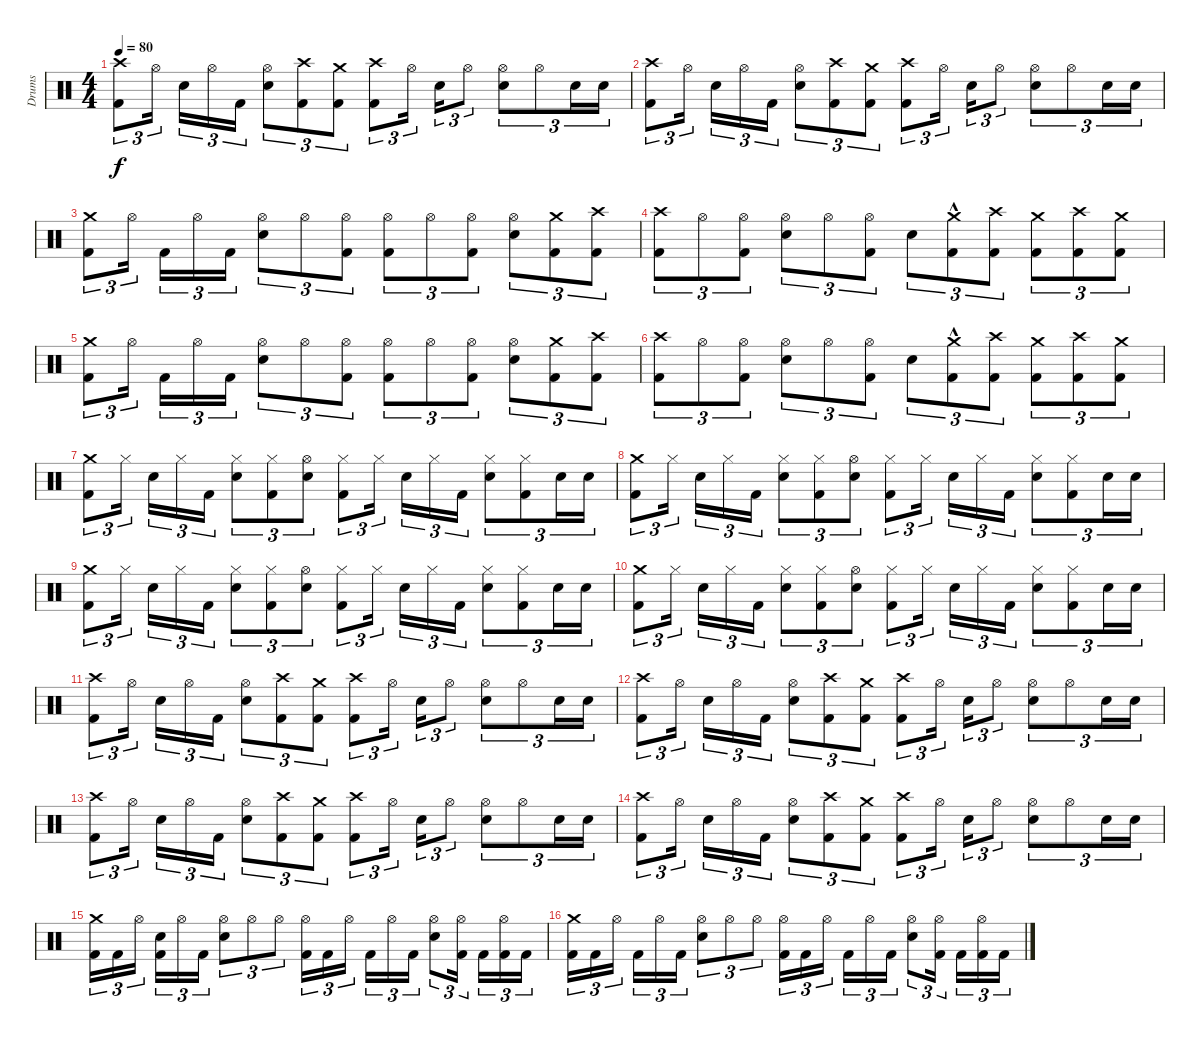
\track ("Drums" "Drums") {instrument percussion}
\staff {score}
\articulation defaults
\ts (4 4)
\tempo 80
\clef neutral
\ks c
("Kick (hit) 2" "Crash high (hit)").8{tu (3 2) dy f} "Hi-Hat (open)".16{tu (3 2)} "Electric Snare (hit)".16{tu (3 2)} "Hi-Hat (open)".16{tu (3 2)} "Kick (hit) 2".16{tu (3 2)} ("Electric Snare (hit)" "Hi-Hat (open)").8{tu (3 2)} ("Kick (hit) 2" "Crash high (hit)").8{tu (3 2)} ("Kick (hit) 2" "Crash medium (hit)").8{tu (3 2)} ("Kick (hit) 2" "Crash high (hit)").8{tu (3 2)} "Hi-Hat (open)".16{tu (3 2)} "Electric Snare (hit)".16{tu (3 2)} "Hi-Hat (open)".8{tu (3 2)} ("Electric Snare (hit)" "Hi-Hat (open)").8{tu (3 2)} "Hi-Hat (open)".8{tu (3 2)} "Electric Snare (hit)".16{tu (3 2)} "Electric Snare (hit)".16{tu (3 2)} |
("Kick (hit) 2" "Crash high (hit)").8{tu (3 2)} "Hi-Hat (open)".16{tu (3 2)} "Electric Snare (hit)".16{tu (3 2)} "Hi-Hat (open)".16{tu (3 2)} "Kick (hit) 2".16{tu (3 2)} ("Electric Snare (hit)" "Hi-Hat (open)").8{tu (3 2)} ("Kick (hit) 2" "Crash high (hit)").8{tu (3 2)} ("Kick (hit) 2" "Crash medium (hit)").8{tu (3 2)} ("Kick (hit) 2" "Crash high (hit)").8{tu (3 2)} "Hi-Hat (open)".16{tu (3 2)} "Electric Snare (hit)".16{tu (3 2)} "Hi-Hat (open)".8{tu (3 2)} ("Electric Snare (hit)" "Hi-Hat (open)").8{tu (3 2)} "Hi-Hat (open)".8{tu (3 2)} "Electric Snare (hit)".16{tu (3 2)} "Electric Snare (hit)".16{tu (3 2)} |
("Kick (hit) 2" "Crash medium (hit)").8{tu (3 2)} "Hi-Hat (open)".16{tu (3 2)} "Kick (hit) 2".16{tu (3 2)} "Hi-Hat (open)".16{tu (3 2)} "Kick (hit) 2".16{tu (3 2)} ("Electric Snare (hit)" "Hi-Hat (open)").8{tu (3 2)} "Hi-Hat (open)".8{tu (3 2)} ("Kick (hit) 2" "Hi-Hat (open)").8{tu (3 2)} ("Kick (hit) 2" "Hi-Hat (open)").8{tu (3 2)} "Hi-Hat (open)".8{tu (3 2)} ("Kick (hit) 2" "Hi-Hat (open)").8{tu (3 2)} ("Electric Snare (hit)" "Hi-Hat (open)").8{tu (3 2)} ("Kick (hit) 2" "Crash medium (hit)").8{tu (3 2)} ("Kick (hit) 2" "Crash high (hit)").8{tu (3 2)} |
("Kick (hit) 2" "Crash high (hit)").8{tu (3 2)} "Hi-Hat (open)".8{tu (3 2)} ("Kick (hit) 2" "Hi-Hat (open)").8{tu (3 2)} ("Electric Snare (hit)" "Hi-Hat (open)").8{tu (3 2)} "Hi-Hat (open)".8{tu (3 2)} ("Kick (hit) 2" "Hi-Hat (open)").8{tu (3 2)} "Electric Snare (hit)".8{tu (3 2)} ("Kick (hit) 2" "Crash medium (hit)"{hac}).8{tu (3 2)} ("Kick (hit) 2" "Crash high (hit)").8{tu (3 2)} ("Kick (hit) 2" "Crash medium (hit)").8{tu (3 2)} ("Kick (hit) 2" "Crash high (hit)").8{tu (3 2)} ("Kick (hit) 2" "Crash medium (hit)").8{tu (3 2)} |
("Kick (hit) 2" "Crash medium (hit)").8{tu (3 2)} "Hi-Hat (open)".16{tu (3 2)} "Kick (hit) 2".16{tu (3 2)} "Hi-Hat (open)".16{tu (3 2)} "Kick (hit) 2".16{tu (3 2)} ("Electric Snare (hit)" "Hi-Hat (open)").8{tu (3 2)} "Hi-Hat (open)".8{tu (3 2)} ("Kick (hit) 2" "Hi-Hat (open)").8{tu (3 2)} ("Kick (hit) 2" "Hi-Hat (open)").8{tu (3 2)} "Hi-Hat (open)".8{tu (3 2)} ("Kick (hit) 2" "Hi-Hat (open)").8{tu (3 2)} ("Electric Snare (hit)" "Hi-Hat (open)").8{tu (3 2)} ("Kick (hit) 2" "Crash medium (hit)").8{tu (3 2)} ("Kick (hit) 2" "Crash high (hit)").8{tu (3 2)} |
("Kick (hit) 2" "Crash high (hit)").8{tu (3 2)} "Hi-Hat (open)".8{tu (3 2)} ("Kick (hit) 2" "Hi-Hat (open)").8{tu (3 2)} ("Electric Snare (hit)" "Hi-Hat (open)").8{tu (3 2)} "Hi-Hat (open)".8{tu (3 2)} ("Kick (hit) 2" "Hi-Hat (open)").8{tu (3 2)} "Electric Snare (hit)".8{tu (3 2)} ("Kick (hit) 2" "Crash medium (hit)"{hac}).8{tu (3 2)} ("Kick (hit) 2" "Crash high (hit)").8{tu (3 2)} ("Kick (hit) 2" "Crash medium (hit)").8{tu (3 2)} ("Kick (hit) 2" "Crash high (hit)").8{tu (3 2)} ("Kick (hit) 2" "Crash medium (hit)").8{tu (3 2)} |
("Kick (hit) 2" "Crash medium (hit)").8{tu (3 2)} "Hi-Hat (closed)".16{tu (3 2)} "Electric Snare (hit)".16{tu (3 2)} "Hi-Hat (closed)".16{tu (3 2)} "Kick (hit) 2".16{tu (3 2)} ("Electric Snare (hit)" "Hi-Hat (closed)").8{tu (3 2)} ("Kick (hit) 2" "Hi-Hat (closed)").8{tu (3 2)} ("Electric Snare (hit)" "Hi-Hat (open)").8{tu (3 2)} ("Kick (hit) 2" "Hi-Hat (closed)").8{tu (3 2)} "Hi-Hat (closed)".16{tu (3 2)} "Electric Snare (hit)".16{tu (3 2)} "Hi-Hat (closed)".16{tu (3 2)} "Kick (hit) 2".16{tu (3 2)} ("Electric Snare (hit)" "Hi-Hat (closed)").8{tu (3 2)} ("Kick (hit) 2" "Hi-Hat (closed)").8{tu (3 2)} "Electric Snare (hit)".16{tu (3 2)} "Electric Snare (hit)".16{tu (3 2)} |
("Kick (hit) 2" "Crash medium (hit)").8{tu (3 2)} "Hi-Hat (closed)".16{tu (3 2)} "Electric Snare (hit)".16{tu (3 2)} "Hi-Hat (closed)".16{tu (3 2)} "Kick (hit) 2".16{tu (3 2)} ("Electric Snare (hit)" "Hi-Hat (closed)").8{tu (3 2)} ("Kick (hit) 2" "Hi-Hat (closed)").8{tu (3 2)} ("Electric Snare (hit)" "Hi-Hat (open)").8{tu (3 2)} ("Kick (hit) 2" "Hi-Hat (closed)").8{tu (3 2)} "Hi-Hat (closed)".16{tu (3 2)} "Electric Snare (hit)".16{tu (3 2)} "Hi-Hat (closed)".16{tu (3 2)} "Kick (hit) 2".16{tu (3 2)} ("Electric Snare (hit)" "Hi-Hat (closed)").8{tu (3 2)} ("Kick (hit) 2" "Hi-Hat (closed)").8{tu (3 2)} "Electric Snare (hit)".16{tu (3 2)} "Electric Snare (hit)".16{tu (3 2)} |
("Kick (hit) 2" "Crash medium (hit)").8{tu (3 2)} "Hi-Hat (closed)".16{tu (3 2)} "Electric Snare (hit)".16{tu (3 2)} "Hi-Hat (closed)".16{tu (3 2)} "Kick (hit) 2".16{tu (3 2)} ("Electric Snare (hit)" "Hi-Hat (closed)").8{tu (3 2)} ("Kick (hit) 2" "Hi-Hat (closed)").8{tu (3 2)} ("Electric Snare (hit)" "Hi-Hat (open)").8{tu (3 2)} ("Kick (hit) 2" "Hi-Hat (closed)").8{tu (3 2)} "Hi-Hat (closed)".16{tu (3 2)} "Electric Snare (hit)".16{tu (3 2)} "Hi-Hat (closed)".16{tu (3 2)} "Kick (hit) 2".16{tu (3 2)} ("Electric Snare (hit)" "Hi-Hat (closed)").8{tu (3 2)} ("Kick (hit) 2" "Hi-Hat (closed)").8{tu (3 2)} "Electric Snare (hit)".16{tu (3 2)} "Electric Snare (hit)".16{tu (3 2)} |
("Kick (hit) 2" "Crash medium (hit)").8{tu (3 2)} "Hi-Hat (closed)".16{tu (3 2)} "Electric Snare (hit)".16{tu (3 2)} "Hi-Hat (closed)".16{tu (3 2)} "Kick (hit) 2".16{tu (3 2)} ("Electric Snare (hit)" "Hi-Hat (closed)").8{tu (3 2)} ("Kick (hit) 2" "Hi-Hat (closed)").8{tu (3 2)} ("Electric Snare (hit)" "Hi-Hat (open)").8{tu (3 2)} ("Kick (hit) 2" "Hi-Hat (closed)").8{tu (3 2)} "Hi-Hat (closed)".16{tu (3 2)} "Electric Snare (hit)".16{tu (3 2)} "Hi-Hat (closed)".16{tu (3 2)} "Kick (hit) 2".16{tu (3 2)} ("Electric Snare (hit)" "Hi-Hat (closed)").8{tu (3 2)} ("Kick (hit) 2" "Hi-Hat (closed)").8{tu (3 2)} "Electric Snare (hit)".16{tu (3 2)} "Electric Snare (hit)".16{tu (3 2)} |
("Kick (hit) 2" "Crash high (hit)").8{tu (3 2)} "Hi-Hat (open)".16{tu (3 2)} "Electric Snare (hit)".16{tu (3 2)} "Hi-Hat (open)".16{tu (3 2)} "Kick (hit) 2".16{tu (3 2)} ("Electric Snare (hit)" "Hi-Hat (open)").8{tu (3 2)} ("Kick (hit) 2" "Crash high (hit)").8{tu (3 2)} ("Kick (hit) 2" "Crash medium (hit)").8{tu (3 2)} ("Kick (hit) 2" "Crash high (hit)").8{tu (3 2)} "Hi-Hat (open)".16{tu (3 2)} "Electric Snare (hit)".16{tu (3 2)} "Hi-Hat (open)".8{tu (3 2)} ("Electric Snare (hit)" "Hi-Hat (open)").8{tu (3 2)} "Hi-Hat (open)".8{tu (3 2)} "Electric Snare (hit)".16{tu (3 2)} "Electric Snare (hit)".16{tu (3 2)} |
("Kick (hit) 2" "Crash high (hit)").8{tu (3 2)} "Hi-Hat (open)".16{tu (3 2)} "Electric Snare (hit)".16{tu (3 2)} "Hi-Hat (open)".16{tu (3 2)} "Kick (hit) 2".16{tu (3 2)} ("Electric Snare (hit)" "Hi-Hat (open)").8{tu (3 2)} ("Kick (hit) 2" "Crash high (hit)").8{tu (3 2)} ("Kick (hit) 2" "Crash medium (hit)").8{tu (3 2)} ("Kick (hit) 2" "Crash high (hit)").8{tu (3 2)} "Hi-Hat (open)".16{tu (3 2)} "Electric Snare (hit)".16{tu (3 2)} "Hi-Hat (open)".8{tu (3 2)} ("Electric Snare (hit)" "Hi-Hat (open)").8{tu (3 2)} "Hi-Hat (open)".8{tu (3 2)} "Electric Snare (hit)".16{tu (3 2)} "Electric Snare (hit)".16{tu (3 2)} |
("Kick (hit) 2" "Crash high (hit)").8{tu (3 2)} "Hi-Hat (open)".16{tu (3 2)} "Electric Snare (hit)".16{tu (3 2)} "Hi-Hat (open)".16{tu (3 2)} "Kick (hit) 2".16{tu (3 2)} ("Electric Snare (hit)" "Hi-Hat (open)").8{tu (3 2)} ("Kick (hit) 2" "Crash high (hit)").8{tu (3 2)} ("Kick (hit) 2" "Crash medium (hit)").8{tu (3 2)} ("Kick (hit) 2" "Crash high (hit)").8{tu (3 2)} "Hi-Hat (open)".16{tu (3 2)} "Electric Snare (hit)".16{tu (3 2)} "Hi-Hat (open)".8{tu (3 2)} ("Electric Snare (hit)" "Hi-Hat (open)").8{tu (3 2)} "Hi-Hat (open)".8{tu (3 2)} "Electric Snare (hit)".16{tu (3 2)} "Electric Snare (hit)".16{tu (3 2)} |
("Kick (hit) 2" "Crash high (hit)").8{tu (3 2)} "Hi-Hat (open)".16{tu (3 2)} "Electric Snare (hit)".16{tu (3 2)} "Hi-Hat (open)".16{tu (3 2)} "Kick (hit) 2".16{tu (3 2)} ("Electric Snare (hit)" "Hi-Hat (open)").8{tu (3 2)} ("Kick (hit) 2" "Crash high (hit)").8{tu (3 2)} ("Kick (hit) 2" "Crash medium (hit)").8{tu (3 2)} ("Kick (hit) 2" "Crash high (hit)").8{tu (3 2)} "Hi-Hat (open)".16{tu (3 2)} "Electric Snare (hit)".16{tu (3 2)} "Hi-Hat (open)".8{tu (3 2)} ("Electric Snare (hit)" "Hi-Hat (open)").8{tu (3 2)} "Hi-Hat (open)".8{tu (3 2)} "Electric Snare (hit)".16{tu (3 2)} "Electric Snare (hit)".16{tu (3 2)} |
("Kick (hit) 2" "Crash medium (hit)").16{tu (3 2)} "Kick (hit) 2".16{tu (3 2)} "Hi-Hat (open)".16{tu (3 2)} ("Electric Snare (hit)" "Kick (hit) 2").16{tu (3 2)} "Hi-Hat (open)".16{tu (3 2)} "Kick (hit) 2".16{tu (3 2)} ("Hi-Hat (open)" "Electric Snare (hit)").8{tu (3 2)} "Hi-Hat (open)".8{tu (3 2)} "Hi-Hat (open)".8{tu (3 2)} ("Hi-Hat (open)" "Kick (hit) 2").16{tu (3 2)} "Kick (hit) 2".16{tu (3 2)} "Hi-Hat (open)".16{tu (3 2)} "Kick (hit) 2".16{tu (3 2)} "Hi-Hat (open)".16{tu (3 2)} "Kick (hit) 2".16{tu (3 2)} ("Hi-Hat (open)" "Electric Snare (hit)").8{tu (3 2)} ("Hi-Hat (open)" "Kick (hit) 2").16{tu (3 2)} "Kick (hit) 2".16{tu (3 2)} ("Hi-Hat (open)" "Kick (hit) 2").16{tu (3 2)} "Kick (hit) 2".16{tu (3 2)} |
("Kick (hit) 2" "Crash medium (hit)").16{tu (3 2)} "Kick (hit) 2".16{tu (3 2)} "Hi-Hat (open)".16{tu (3 2)} "Kick (hit) 2".16{tu (3 2)} "Hi-Hat (open)".16{tu (3 2)} "Kick (hit) 2".16{tu (3 2)} ("Hi-Hat (open)" "Electric Snare (hit)").8{tu (3 2)} "Hi-Hat (open)".8{tu (3 2)} "Hi-Hat (open)".8{tu (3 2)} ("Hi-Hat (open)" "Kick (hit) 2").16{tu (3 2)} "Kick (hit) 2".16{tu (3 2)} "Hi-Hat (open)".16{tu (3 2)} "Kick (hit) 2".16{tu (3 2)} "Hi-Hat (open)".16{tu (3 2)} "Kick (hit) 2".16{tu (3 2)} ("Hi-Hat (open)" "Electric Snare (hit)").8{tu (3 2)} ("Hi-Hat (open)" "Kick (hit) 2").16{tu (3 2)} "Kick (hit) 2".16{tu (3 2)} ("Hi-Hat (open)" "Kick (hit) 2").16{tu (3 2)} "Kick (hit) 2".16{tu (3 2)}
